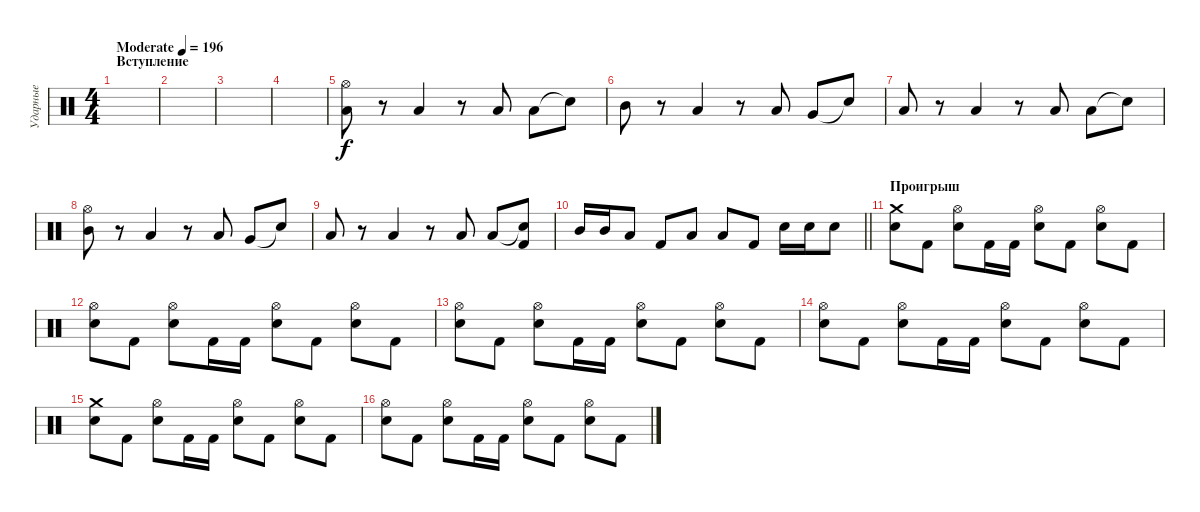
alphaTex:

\track ("Ударные" "Ударные") {instrument percussion}
\staff {score}
\articulation defaults
\ts (4 4)
\section ("" "Вступление")
\tempo (196 "Moderate")
\clef neutral
\ks c
|
|
|
|
("Hi-Hat (open)" "Low Floor Tom (hit)").8 r.8 "Low Tom (hit)".4 r.8 "Low Tom (hit)".8 "Low Floor Tom (hit)".8 "Snare (hit)"{t}.8 |
"Mid Tom (hit)".8 r.8 "Low Tom (hit)".4 r.8 "Low Tom (hit)".8 "Very Low Tom (hit)".8 "Snare (hit)"{t}.8 |
"Low Floor Tom (hit)".8 r.8 "Low Tom (hit)".4 r.8 "Low Tom (hit)".8 "Low Floor Tom (hit)".8 "Snare (hit)"{t}.8 |
("Hi-Hat (open)" "Mid Tom (hit)").8 r.8 "Low Tom (hit)".4 r.8 "Low Tom (hit)".8 "Very Low Tom (hit)".8 "Snare (hit)"{t}.8 |
"Low Floor Tom (hit)".8 r.8 "Low Tom (hit)".4 r.8 "Low Tom (hit)".8 "Low Floor Tom (hit)".8 ("Snare (hit)"{t} "Kick (hit) 2").8 |
\barLineRight lightlight "Mid Tom (hit)".16 "Mid Tom (hit)".16 "Low Tom (hit)".8 "Kick (hit) 2".8 "Low Tom (hit)".8 "Low Floor Tom (hit)".8 "Kick (hit) 2".8 "Snare (hit) 2".16 "Snare (hit) 2".16 "Snare (hit) 2".8
|
\section ("" "Проигрыш")
("Crash medium (hit)" "Snare (hit) 2").8 "Kick (hit) 2".8 ("Hi-Hat (open)" "Snare (hit) 2").8 "Kick (hit) 2".16 "Kick (hit) 2".16 ("Hi-Hat (open)" "Snare (hit) 2").8 "Kick (hit) 2".8 ("Hi-Hat (open)" "Snare (hit) 2").8 "Kick (hit) 2".8 |
("Hi-Hat (open)" "Snare (hit) 2").8 "Kick (hit) 2".8 ("Hi-Hat (open)" "Snare (hit) 2").8 "Kick (hit) 2".16 "Kick (hit) 2".16 ("Hi-Hat (open)" "Snare (hit) 2").8 "Kick (hit) 2".8 ("Hi-Hat (open)" "Snare (hit) 2").8 "Kick (hit) 2".8 |
("Hi-Hat (open)" "Snare (hit) 2").8 "Kick (hit) 2".8 ("Hi-Hat (open)" "Snare (hit) 2").8 "Kick (hit) 2".16 "Kick (hit) 2".16 ("Hi-Hat (open)" "Snare (hit) 2").8 "Kick (hit) 2".8 ("Hi-Hat (open)" "Snare (hit) 2").8 "Kick (hit) 2".8 |
("Hi-Hat (open)" "Snare (hit) 2").8 "Kick (hit) 2".8 ("Hi-Hat (open)" "Snare (hit) 2").8 "Kick (hit) 2".16 "Kick (hit) 2".16 ("Hi-Hat (open)" "Snare (hit) 2").8 "Kick (hit) 2".8 ("Hi-Hat (open)" "Snare (hit) 2").8 "Kick (hit) 2".8 |
("Crash medium (hit)" "Snare (hit) 2").8 "Kick (hit) 2".8 ("Hi-Hat (open)" "Snare (hit) 2").8 "Kick (hit) 2".16 "Kick (hit) 2".16 ("Hi-Hat (open)" "Snare (hit) 2").8 "Kick (hit) 2".8 ("Hi-Hat (open)" "Snare (hit) 2").8 "Kick (hit) 2".8 |
("Hi-Hat (open)" "Snare (hit) 2").8 "Kick (hit) 2".8 ("Hi-Hat (open)" "Snare (hit) 2").8 "Kick (hit) 2".16 "Kick (hit) 2".16 ("Hi-Hat (open)" "Snare (hit) 2").8 "Kick (hit) 2".8 ("Hi-Hat (open)" "Snare (hit) 2").8 "Kick (hit) 2".8
